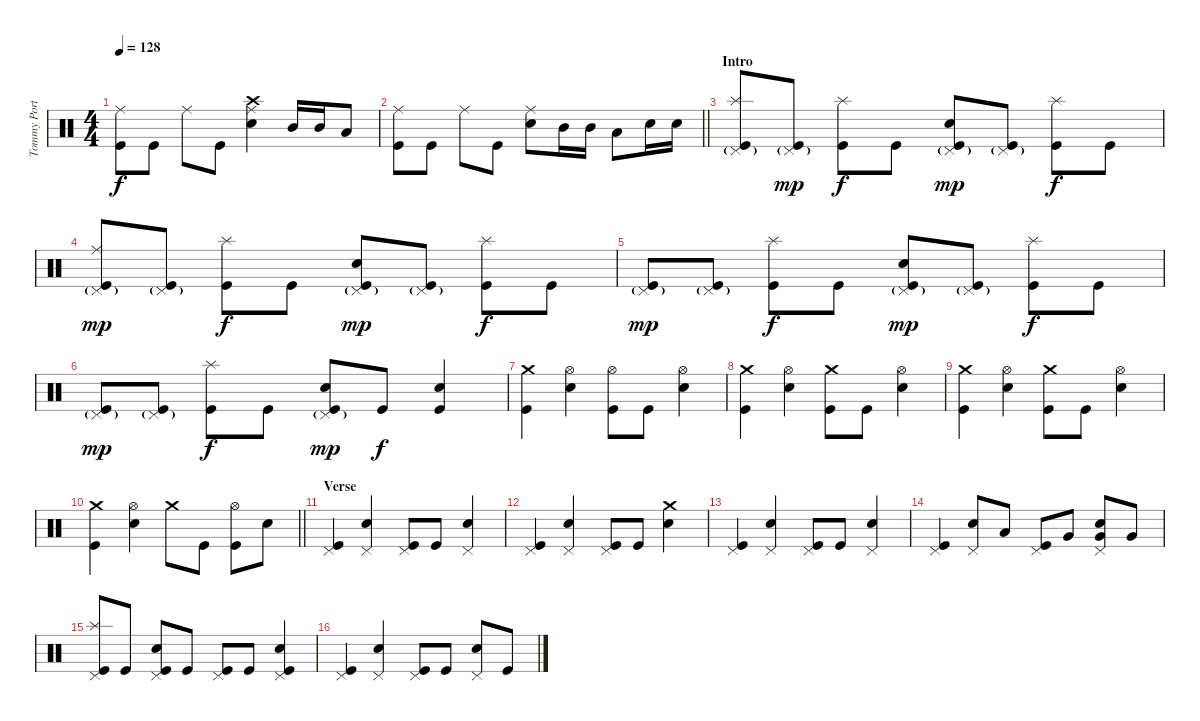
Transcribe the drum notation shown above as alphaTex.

\track ("Tommy Portimo - Drums" "Tommy Port") {instrument percussion}
\staff {score}
\articulation defaults
\ts (4 4)
\tempo 128
\clef neutral
\ks c
("Ride (middle)" "Kick (hit)").8{dy f} "Kick (hit)".8 "Ride (middle)".8 "Kick (hit)".8 ("Crash high (hit)" "Ride (middle)" "Electric Snare (hit)").4 "Mid Tom (hit)".16 "Mid Tom (hit)".16 "Low Tom (hit)".8 |
\barLineRight lightlight
("Ride (middle)" "Kick (hit)").8 "Kick (hit)".8 "Ride (middle)".8 "Kick (hit)".8 ("Ride (middle)" "Electric Snare (hit)").8 "Mid Tom (hit)".16 "Mid Tom (hit)".16 "Low Tom (hit)".8 "Electric Snare (hit)".16 "Electric Snare (hit)".16 |
\section ("" "Intro")
("Splash (hit)" "Pedal Hi-Hat (hit)"{g} "Kick (hit)").8 ("Pedal Hi-Hat (hit)"{g} "Kick (hit)").8{dy mp} ("Splash (hit)" "Kick (hit)").8{dy f} "Kick (hit)".8 ("Pedal Hi-Hat (hit)"{g} "Electric Snare (hit)" "Kick (hit)").8{dy mp} ("Pedal Hi-Hat (hit)"{g} "Kick (hit)").8 ("Splash (hit)" "Kick (hit)").8{dy f} "Kick (hit)".8 |
("Ride (middle)" "Pedal Hi-Hat (hit)"{g} "Kick (hit)").8{dy mp} ("Pedal Hi-Hat (hit)"{g} "Kick (hit)").8 ("Splash (hit)" "Kick (hit)").8{dy f} "Kick (hit)".8 ("Pedal Hi-Hat (hit)"{g} "Electric Snare (hit)" "Kick (hit)").8{dy mp} ("Pedal Hi-Hat (hit)"{g} "Kick (hit)").8 ("Splash (hit)" "Kick (hit)").8{dy f} "Kick (hit)".8 |
("Pedal Hi-Hat (hit)"{g} "Kick (hit)").8{dy mp} ("Pedal Hi-Hat (hit)"{g} "Kick (hit)").8 ("Splash (hit)" "Kick (hit)").8{dy f} "Kick (hit)".8 ("Pedal Hi-Hat (hit)"{g} "Electric Snare (hit)" "Kick (hit)").8{dy mp} ("Pedal Hi-Hat (hit)"{g} "Kick (hit)").8 ("Splash (hit)" "Kick (hit)").8{dy f} "Kick (hit)".8 |
("Pedal Hi-Hat (hit)"{g} "Kick (hit)").8{dy mp} ("Pedal Hi-Hat (hit)"{g} "Kick (hit)").8 ("Splash (hit)" "Kick (hit)").8{dy f} "Kick (hit)".8 ("Pedal Hi-Hat (hit)"{g} "Electric Snare (hit)" "Kick (hit)").8{dy mp} "Kick (hit)".8{dy f} ("Electric Snare (hit)" "Kick (hit)").4 |
("Crash medium (hit)" "Kick (hit)").4 ("Hi-Hat (open)" "Electric Snare (hit)").4 ("Hi-Hat (open)" "Kick (hit)").8 "Kick (hit)".8 ("Hi-Hat (open)" "Electric Snare (hit)").4 |
("Crash medium (hit)" "Kick (hit)").4 ("Hi-Hat (open)" "Electric Snare (hit)").4 ("Crash medium (hit)" "Kick (hit)").8 "Kick (hit)".8 ("Hi-Hat (open)" "Electric Snare (hit)").4 |
("Crash medium (hit)" "Kick (hit)").4 ("Hi-Hat (open)" "Electric Snare (hit)").4 ("Crash medium (hit)" "Kick (hit)").8 "Kick (hit)".8 ("Hi-Hat (open)" "Electric Snare (hit)").4 |
\barLineRight lightlight
("Crash medium (hit)" "Kick (hit)").4 ("Hi-Hat (open)" "Electric Snare (hit)").4 "Crash medium (hit)".8 "Kick (hit)".8 ("Hi-Hat (open)" "Kick (hit)").8 "Electric Snare (hit)".8 |
\section ("" "Verse")
("Pedal Hi-Hat (hit)" "Kick (hit)").4 ("Pedal Hi-Hat (hit)" "Electric Snare (hit)").4 ("Pedal Hi-Hat (hit)" "Kick (hit)").8 "Kick (hit)".8 ("Pedal Hi-Hat (hit)" "Electric Snare (hit)").4 |
("Pedal Hi-Hat (hit)" "Kick (hit)").4 ("Pedal Hi-Hat (hit)" "Electric Snare (hit)").4 ("Pedal Hi-Hat (hit)" "Kick (hit)").8 "Kick (hit)".8 ("Crash medium (hit)" "Electric Snare (hit)").4 |
("Pedal Hi-Hat (hit)" "Kick (hit)").4 ("Pedal Hi-Hat (hit)" "Electric Snare (hit)").4 ("Pedal Hi-Hat (hit)" "Kick (hit)").8 "Kick (hit)".8 ("Pedal Hi-Hat (hit)" "Electric Snare (hit)").4 |
("Pedal Hi-Hat (hit)" "Kick (hit)").4 ("Pedal Hi-Hat (hit)" "Electric Snare (hit)").8 "Low Tom (hit)".8 ("Pedal Hi-Hat (hit)" "Kick (hit)").8 "Very Low Tom (hit)".8 ("Pedal Hi-Hat (hit)" "Very Low Tom (hit)" "Electric Snare (hit)").8 "Very Low Tom (hit)".8 |
("Splash (hit)" "Pedal Hi-Hat (hit)" "Kick (hit)").8 "Kick (hit)".8 ("Pedal Hi-Hat (hit)" "Electric Snare (hit)" "Kick (hit)").8 "Kick (hit)".8 ("Pedal Hi-Hat (hit)" "Kick (hit)").8 "Kick (hit)".8 ("Pedal Hi-Hat (hit)" "Electric Snare (hit)" "Kick (hit)").4 |
("Pedal Hi-Hat (hit)" "Kick (hit)").4 ("Pedal Hi-Hat (hit)" "Electric Snare (hit)").4 ("Pedal Hi-Hat (hit)" "Kick (hit)").8 "Kick (hit)".8 ("Pedal Hi-Hat (hit)" "Electric Snare (hit)").8 "Kick (hit)".8
